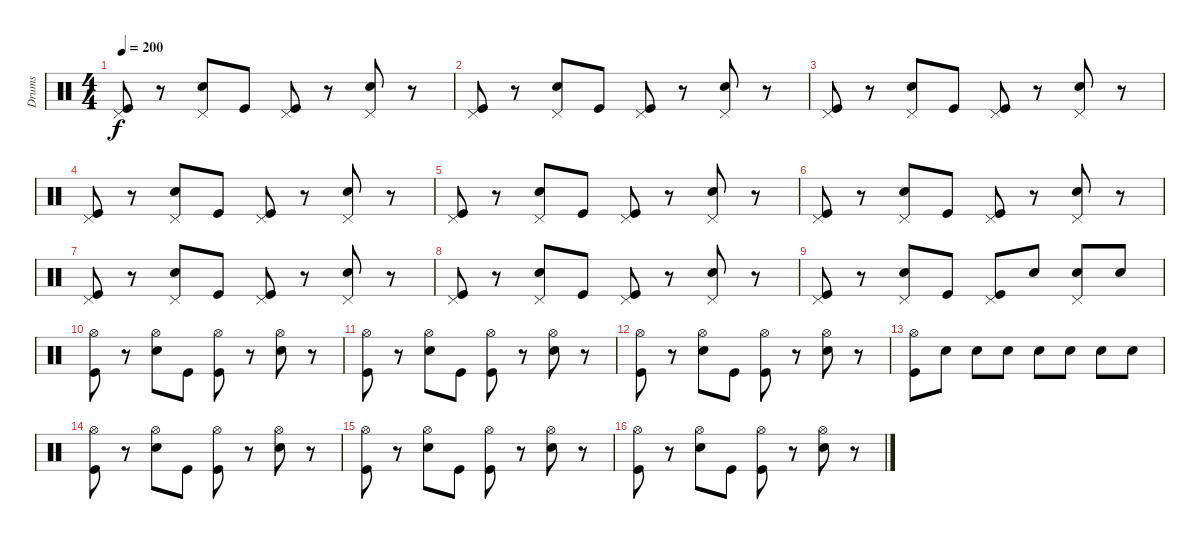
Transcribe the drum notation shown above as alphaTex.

\track ("Drums" "Drums") {instrument percussion}
\staff {score}
\articulation defaults
\ts (4 4)
\tempo 200
\clef neutral
\ks c
("Pedal Hi-Hat (hit)" "Kick (hit)").8{dy f} r.8 ("Pedal Hi-Hat (hit)" "Snare (hit) 2").8 "Kick (hit)".8 ("Pedal Hi-Hat (hit)" "Kick (hit)").8 r.8 ("Pedal Hi-Hat (hit)" "Snare (hit) 2").8 r.8 |
("Pedal Hi-Hat (hit)" "Kick (hit)").8 r.8 ("Pedal Hi-Hat (hit)" "Snare (hit) 2").8 "Kick (hit)".8 ("Pedal Hi-Hat (hit)" "Kick (hit)").8 r.8 ("Pedal Hi-Hat (hit)" "Snare (hit) 2").8 r.8 |
("Pedal Hi-Hat (hit)" "Kick (hit)").8 r.8 ("Pedal Hi-Hat (hit)" "Snare (hit) 2").8 "Kick (hit)".8 ("Pedal Hi-Hat (hit)" "Kick (hit)").8 r.8 ("Pedal Hi-Hat (hit)" "Snare (hit) 2").8 r.8 |
("Pedal Hi-Hat (hit)" "Kick (hit)").8 r.8 ("Pedal Hi-Hat (hit)" "Snare (hit) 2").8 "Kick (hit)".8 ("Pedal Hi-Hat (hit)" "Kick (hit)").8 r.8 ("Pedal Hi-Hat (hit)" "Snare (hit) 2").8 r.8 |
("Pedal Hi-Hat (hit)" "Kick (hit)").8 r.8 ("Pedal Hi-Hat (hit)" "Snare (hit) 2").8 "Kick (hit)".8 ("Pedal Hi-Hat (hit)" "Kick (hit)").8 r.8 ("Pedal Hi-Hat (hit)" "Snare (hit) 2").8 r.8 |
("Pedal Hi-Hat (hit)" "Kick (hit)").8 r.8 ("Pedal Hi-Hat (hit)" "Snare (hit) 2").8 "Kick (hit)".8 ("Pedal Hi-Hat (hit)" "Kick (hit)").8 r.8 ("Pedal Hi-Hat (hit)" "Snare (hit) 2").8 r.8 |
("Pedal Hi-Hat (hit)" "Kick (hit)").8 r.8 ("Pedal Hi-Hat (hit)" "Snare (hit) 2").8 "Kick (hit)".8 ("Pedal Hi-Hat (hit)" "Kick (hit)").8 r.8 ("Pedal Hi-Hat (hit)" "Snare (hit) 2").8 r.8 |
("Pedal Hi-Hat (hit)" "Kick (hit)").8 r.8 ("Pedal Hi-Hat (hit)" "Snare (hit) 2").8 "Kick (hit)".8 ("Pedal Hi-Hat (hit)" "Kick (hit)").8 r.8 ("Pedal Hi-Hat (hit)" "Snare (hit) 2").8 r.8 |
("Pedal Hi-Hat (hit)" "Kick (hit)").8 r.8 ("Pedal Hi-Hat (hit)" "Snare (hit) 2").8 "Kick (hit)".8 ("Pedal Hi-Hat (hit)" "Kick (hit)").8 "Snare (hit) 2".8 ("Pedal Hi-Hat (hit)" "Snare (hit) 2").8 "Snare (hit) 2".8 |
("Hi-Hat (open)" "Kick (hit)").8 r.8 ("Hi-Hat (open)" "Snare (hit) 2").8 "Kick (hit)".8 ("Hi-Hat (open)" "Kick (hit)").8 r.8 ("Hi-Hat (open)" "Snare (hit) 2").8 r.8 |
("Hi-Hat (open)" "Kick (hit)").8 r.8 ("Hi-Hat (open)" "Snare (hit) 2").8 "Kick (hit)".8 ("Hi-Hat (open)" "Kick (hit)").8 r.8 ("Hi-Hat (open)" "Snare (hit) 2").8 r.8 |
("Hi-Hat (open)" "Kick (hit)").8 r.8 ("Hi-Hat (open)" "Snare (hit) 2").8 "Kick (hit)".8 ("Hi-Hat (open)" "Kick (hit)").8 r.8 ("Hi-Hat (open)" "Snare (hit) 2").8 r.8 |
("Hi-Hat (open)" "Kick (hit)").8 "Snare (hit) 2".8 "Snare (hit) 2".8 "Snare (hit) 2".8 "Snare (hit) 2".8 "Snare (hit) 2".8 "Snare (hit) 2".8 "Snare (hit) 2".8 |
("Hi-Hat (open)" "Kick (hit)").8 r.8 ("Hi-Hat (open)" "Snare (hit) 2").8 "Kick (hit)".8 ("Hi-Hat (open)" "Kick (hit)").8 r.8 ("Hi-Hat (open)" "Snare (hit) 2").8 r.8 |
("Hi-Hat (open)" "Kick (hit)").8 r.8 ("Hi-Hat (open)" "Snare (hit) 2").8 "Kick (hit)".8 ("Hi-Hat (open)" "Kick (hit)").8 r.8 ("Hi-Hat (open)" "Snare (hit) 2").8 r.8 |
("Hi-Hat (open)" "Kick (hit)").8 r.8 ("Hi-Hat (open)" "Snare (hit) 2").8 "Kick (hit)".8 ("Hi-Hat (open)" "Kick (hit)").8 r.8 ("Hi-Hat (open)" "Snare (hit) 2").8 r.8
